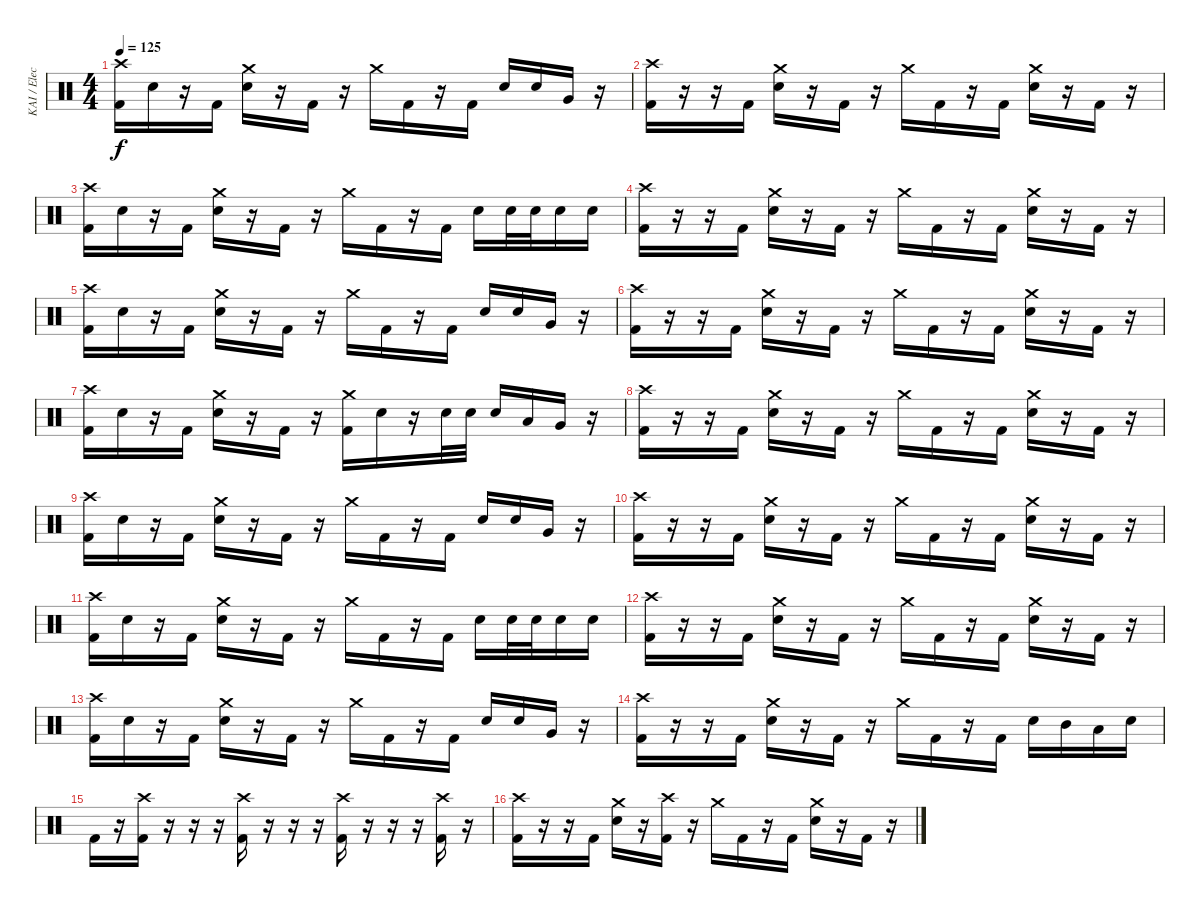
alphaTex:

\track ("KAI / Elect. Drums" "KAI / Elec") {instrument percussion}
\staff {score}
\articulation defaults
\ts (4 4)
\tempo 125
\clef neutral
\ks c
("Crash high (hit)" "Kick (hit) 2").16{dy f} "Electric Snare (hit)".16 r.16 "Kick (hit) 2".16 ("Crash medium (hit)" "Electric Snare (hit)").16 r.16 "Kick (hit) 2".16 r.16 "Crash medium (hit)".16 "Kick (hit) 2".16 r.16 "Kick (hit) 2".16 "Electric Snare (hit)".16 "Electric Snare (hit)".16 "Very Low Tom (hit)".16 r.16 |
("Crash high (hit)" "Kick (hit) 2").16 r.16 r.16 "Kick (hit) 2".16 ("Crash medium (hit)" "Electric Snare (hit)").16 r.16 "Kick (hit) 2".16 r.16 "Crash medium (hit)".16 "Kick (hit) 2".16 r.16 "Kick (hit) 2".16 ("Crash medium (hit)" "Electric Snare (hit)").16 r.16 "Kick (hit) 2".16 r.16 |
("Crash high (hit)" "Kick (hit) 2").16 "Electric Snare (hit)".16 r.16 "Kick (hit) 2".16 ("Crash medium (hit)" "Electric Snare (hit)").16 r.16 "Kick (hit) 2".16 r.16 "Crash medium (hit)".16 "Kick (hit) 2".16 r.16 "Kick (hit) 2".16 "Electric Snare (hit)".16 "Electric Snare (hit)".32 "Electric Snare (hit)".32 "Electric Snare (hit)".16 "Electric Snare (hit)".16 |
("Crash high (hit)" "Kick (hit) 2").16 r.16 r.16 "Kick (hit) 2".16 ("Crash medium (hit)" "Electric Snare (hit)").16 r.16 "Kick (hit) 2".16 r.16 "Crash medium (hit)".16 "Kick (hit) 2".16 r.16 "Kick (hit) 2".16 ("Crash medium (hit)" "Electric Snare (hit)").16 r.16 "Kick (hit) 2".16 r.16 |
("Crash high (hit)" "Kick (hit) 2").16 "Electric Snare (hit)".16 r.16 "Kick (hit) 2".16 ("Crash medium (hit)" "Electric Snare (hit)").16 r.16 "Kick (hit) 2".16 r.16 "Crash medium (hit)".16 "Kick (hit) 2".16 r.16 "Kick (hit) 2".16 "Electric Snare (hit)".16 "Electric Snare (hit)".16 "Very Low Tom (hit)".16 r.16 |
("Crash high (hit)" "Kick (hit) 2").16 r.16 r.16 "Kick (hit) 2".16 ("Crash medium (hit)" "Electric Snare (hit)").16 r.16 "Kick (hit) 2".16 r.16 "Crash medium (hit)".16 "Kick (hit) 2".16 r.16 "Kick (hit) 2".16 ("Crash medium (hit)" "Electric Snare (hit)").16 r.16 "Kick (hit) 2".16 r.16 |
("Crash high (hit)" "Kick (hit) 2").16 "Electric Snare (hit)".16 r.16 "Kick (hit) 2".16 ("Crash medium (hit)" "Electric Snare (hit)").16 r.16 "Kick (hit) 2".16 r.16 ("Crash medium (hit)" "Kick (hit) 2").16 "Electric Snare (hit)".16 r.16 "Electric Snare (hit)".32 "Electric Snare (hit)".32 "Electric Snare (hit)".16 "Low Tom (hit)".16 "Very Low Tom (hit)".16 r.16 |
("Crash high (hit)" "Kick (hit) 2").16 r.16 r.16 "Kick (hit) 2".16 ("Crash medium (hit)" "Electric Snare (hit)").16 r.16 "Kick (hit) 2".16 r.16 "Crash medium (hit)".16 "Kick (hit) 2".16 r.16 "Kick (hit) 2".16 ("Crash medium (hit)" "Electric Snare (hit)").16 r.16 "Kick (hit) 2".16 r.16 |
("Crash high (hit)" "Kick (hit) 2").16 "Electric Snare (hit)".16 r.16 "Kick (hit) 2".16 ("Crash medium (hit)" "Electric Snare (hit)").16 r.16 "Kick (hit) 2".16 r.16 "Crash medium (hit)".16 "Kick (hit) 2".16 r.16 "Kick (hit) 2".16 "Electric Snare (hit)".16 "Electric Snare (hit)".16 "Very Low Tom (hit)".16 r.16 |
("Crash high (hit)" "Kick (hit) 2").16 r.16 r.16 "Kick (hit) 2".16 ("Crash medium (hit)" "Electric Snare (hit)").16 r.16 "Kick (hit) 2".16 r.16 "Crash medium (hit)".16 "Kick (hit) 2".16 r.16 "Kick (hit) 2".16 ("Crash medium (hit)" "Electric Snare (hit)").16 r.16 "Kick (hit) 2".16 r.16 |
("Crash high (hit)" "Kick (hit) 2").16 "Electric Snare (hit)".16 r.16 "Kick (hit) 2".16 ("Crash medium (hit)" "Electric Snare (hit)").16 r.16 "Kick (hit) 2".16 r.16 "Crash medium (hit)".16 "Kick (hit) 2".16 r.16 "Kick (hit) 2".16 "Electric Snare (hit)".16 "Electric Snare (hit)".32 "Electric Snare (hit)".32 "Electric Snare (hit)".16 "Electric Snare (hit)".16 |
("Crash high (hit)" "Kick (hit) 2").16 r.16 r.16 "Kick (hit) 2".16 ("Crash medium (hit)" "Electric Snare (hit)").16 r.16 "Kick (hit) 2".16 r.16 "Crash medium (hit)".16 "Kick (hit) 2".16 r.16 "Kick (hit) 2".16 ("Crash medium (hit)" "Electric Snare (hit)").16 r.16 "Kick (hit) 2".16 r.16 |
("Crash high (hit)" "Kick (hit) 2").16 "Electric Snare (hit)".16 r.16 "Kick (hit) 2".16 ("Crash medium (hit)" "Electric Snare (hit)").16 r.16 "Kick (hit) 2".16 r.16 "Crash medium (hit)".16 "Kick (hit) 2".16 r.16 "Kick (hit) 2".16 "Electric Snare (hit)".16 "Electric Snare (hit)".16 "Very Low Tom (hit)".16 r.16 |
("Crash high (hit)" "Kick (hit) 2").16 r.16 r.16 "Kick (hit) 2".16 ("Crash medium (hit)" "Electric Snare (hit)").16 r.16 "Kick (hit) 2".16 r.16 "Crash medium (hit)".16 "Kick (hit) 2".16 r.16 "Kick (hit) 2".16 "Electric Snare (hit)".16 "Mid Tom (hit)".16 "Low Tom (hit)".16 "Electric Snare (hit)".16 |
"Kick (hit) 2".16 r.16 ("Crash high (hit)" "Kick (hit) 2").16 r.16 r.16 r.16 ("Crash high (hit)" "Kick (hit) 2").16 r.16 r.16 r.16 ("Crash high (hit)" "Kick (hit) 2").16 r.16 r.16 r.16 ("Crash high (hit)" "Kick (hit) 2").16 r.16 |
("Crash high (hit)" "Kick (hit) 2").16 r.16 r.16 "Kick (hit) 2".16 ("Crash medium (hit)" "Electric Snare (hit)").16 r.16 ("Crash high (hit)" "Kick (hit) 2").16 r.16 "Crash medium (hit)".16 "Kick (hit) 2".16 r.16 "Kick (hit) 2".16 ("Crash medium (hit)" "Electric Snare (hit)").16 r.16 "Kick (hit) 2".16 r.16
